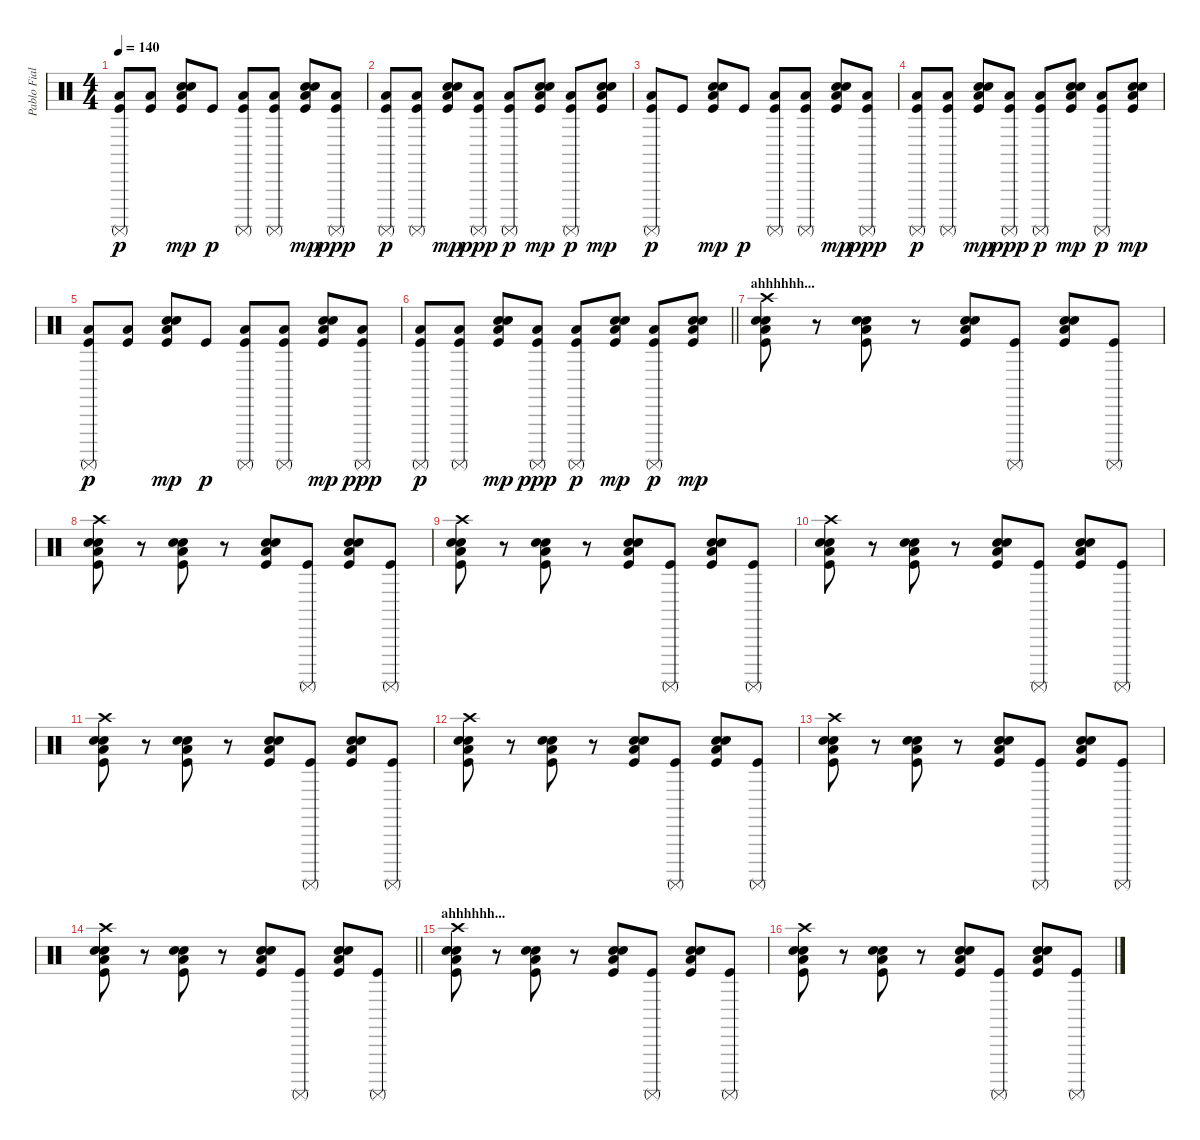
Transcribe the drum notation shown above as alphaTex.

\track ("Pablo Fiallo" "Pablo Fial") {instrument percussion}
\staff {score}
\articulation defaults
\ts (4 4)
\tempo 140
\clef neutral
\ks c
("Low Floor Tom (hit)" "Kick (hit)" "Surdo (mute)").8{dy p} ("Low Floor Tom (hit)" "Kick (hit)").8 ("Low Floor Tom (hit)" "Electric Snare (hit)" "Kick (hit)" "Snare (hit) 2").8{dy mp} "Kick (hit)".8{dy p} ("Low Floor Tom (hit)" "Kick (hit)" "Surdo (mute)").8 ("Low Floor Tom (hit)" "Kick (hit)" "Surdo (mute)").8 ("Low Floor Tom (hit)" "Electric Snare (hit)" "Kick (hit)" "Snare (hit) 2").8{dy mp} ("Low Floor Tom (hit)" "Kick (hit)" "Surdo (mute)").8{dy ppp} |
("Low Floor Tom (hit)" "Kick (hit)" "Surdo (mute)").8{dy p} ("Low Floor Tom (hit)" "Kick (hit)" "Surdo (mute)").8 ("Low Floor Tom (hit)" "Electric Snare (hit)" "Kick (hit)" "Snare (hit) 2").8{dy mp} ("Low Floor Tom (hit)" "Kick (hit)" "Surdo (mute)").8{dy ppp} ("Low Floor Tom (hit)" "Kick (hit)" "Surdo (mute)").8{dy p} ("Low Floor Tom (hit)" "Electric Snare (hit)" "Kick (hit)" "Snare (hit) 2").8{dy mp} ("Low Floor Tom (hit)" "Kick (hit)" "Surdo (mute)").8{dy p} ("Low Floor Tom (hit)" "Electric Snare (hit)" "Kick (hit)" "Snare (hit) 2").8{dy mp} |
("Low Floor Tom (hit)" "Kick (hit)" "Surdo (mute)").8{dy p} "Kick (hit)".8 ("Low Floor Tom (hit)" "Electric Snare (hit)" "Kick (hit)" "Snare (hit) 2").8{dy mp} "Kick (hit)".8{dy p} ("Low Floor Tom (hit)" "Kick (hit)" "Surdo (mute)").8 ("Low Floor Tom (hit)" "Kick (hit)" "Surdo (mute)").8 ("Low Floor Tom (hit)" "Electric Snare (hit)" "Kick (hit)" "Snare (hit) 2").8{dy mp} ("Low Floor Tom (hit)" "Kick (hit)" "Surdo (mute)").8{dy ppp} |
("Low Floor Tom (hit)" "Kick (hit)" "Surdo (mute)").8{dy p} ("Low Floor Tom (hit)" "Kick (hit)" "Surdo (mute)").8 ("Low Floor Tom (hit)" "Electric Snare (hit)" "Kick (hit)" "Snare (hit) 2").8{dy mp} ("Low Floor Tom (hit)" "Kick (hit)" "Surdo (mute)").8{dy ppp} ("Low Floor Tom (hit)" "Kick (hit)" "Surdo (mute)").8{dy p} ("Low Floor Tom (hit)" "Electric Snare (hit)" "Kick (hit)" "Snare (hit) 2").8{dy mp} ("Low Floor Tom (hit)" "Kick (hit)" "Surdo (mute)").8{dy p} ("Low Floor Tom (hit)" "Electric Snare (hit)" "Kick (hit)" "Snare (hit) 2").8{dy mp} |
("Low Floor Tom (hit)" "Kick (hit)" "Surdo (mute)").8{dy p} ("Low Floor Tom (hit)" "Kick (hit)").8 ("Low Floor Tom (hit)" "Electric Snare (hit)" "Kick (hit)" "Snare (hit) 2").8{dy mp} "Kick (hit)".8{dy p} ("Low Floor Tom (hit)" "Kick (hit)" "Surdo (mute)").8 ("Low Floor Tom (hit)" "Kick (hit)" "Surdo (mute)").8 ("Low Floor Tom (hit)" "Electric Snare (hit)" "Kick (hit)" "Snare (hit) 2").8{dy mp} ("Low Floor Tom (hit)" "Kick (hit)" "Surdo (mute)").8{dy ppp} |
\barLineRight lightlight
("Low Floor Tom (hit)" "Kick (hit)" "Surdo (mute)").8{dy p} ("Low Floor Tom (hit)" "Kick (hit)" "Surdo (mute)").8 ("Low Floor Tom (hit)" "Electric Snare (hit)" "Kick (hit)" "Snare (hit) 2").8{dy mp} ("Low Floor Tom (hit)" "Kick (hit)" "Surdo (mute)").8{dy ppp} ("Low Floor Tom (hit)" "Kick (hit)" "Surdo (mute)").8{dy p} ("Low Floor Tom (hit)" "Electric Snare (hit)" "Kick (hit)" "Snare (hit) 2").8{dy mp} ("Low Floor Tom (hit)" "Kick (hit)" "Surdo (mute)").8{dy p} ("Low Floor Tom (hit)" "Electric Snare (hit)" "Kick (hit)" "Snare (hit) 2").8{dy mp} |
\section ("" "ahhhhhh...")
("Low Floor Tom (hit)" "Electric Snare (hit)" "Crash high (hit)" "Kick (hit)" "Snare (hit) 2").8 r.8 ("Low Floor Tom (hit)" "Electric Snare (hit)" "Kick (hit)" "Snare (hit) 2").8 r.8 ("Low Floor Tom (hit)" "Electric Snare (hit)" "Kick (hit)" "Snare (hit) 2").8 ("Kick (hit)" "Surdo (mute)").8 ("Low Floor Tom (hit)" "Electric Snare (hit)" "Kick (hit)" "Snare (hit) 2").8 ("Kick (hit)" "Surdo (mute)").8 |
("Low Floor Tom (hit)" "Electric Snare (hit)" "Crash high (hit)" "Kick (hit)" "Snare (hit) 2").8 r.8 ("Low Floor Tom (hit)" "Electric Snare (hit)" "Kick (hit)" "Snare (hit) 2").8 r.8 ("Low Floor Tom (hit)" "Electric Snare (hit)" "Kick (hit)" "Snare (hit) 2").8 ("Kick (hit)" "Surdo (mute)").8 ("Low Floor Tom (hit)" "Electric Snare (hit)" "Kick (hit)" "Snare (hit) 2").8 ("Kick (hit)" "Surdo (mute)").8 |
("Low Floor Tom (hit)" "Electric Snare (hit)" "Crash high (hit)" "Kick (hit)" "Snare (hit) 2").8 r.8 ("Low Floor Tom (hit)" "Electric Snare (hit)" "Kick (hit)" "Snare (hit) 2").8 r.8 ("Low Floor Tom (hit)" "Electric Snare (hit)" "Kick (hit)" "Snare (hit) 2").8 ("Kick (hit)" "Surdo (mute)").8 ("Low Floor Tom (hit)" "Electric Snare (hit)" "Kick (hit)" "Snare (hit) 2").8 ("Kick (hit)" "Surdo (mute)").8 |
("Low Floor Tom (hit)" "Electric Snare (hit)" "Crash high (hit)" "Kick (hit)" "Snare (hit) 2").8 r.8 ("Low Floor Tom (hit)" "Electric Snare (hit)" "Kick (hit)" "Snare (hit) 2").8 r.8 ("Low Floor Tom (hit)" "Electric Snare (hit)" "Kick (hit)" "Snare (hit) 2").8 ("Kick (hit)" "Surdo (mute)").8 ("Low Floor Tom (hit)" "Electric Snare (hit)" "Kick (hit)" "Snare (hit) 2").8 ("Kick (hit)" "Surdo (mute)").8 |
("Low Floor Tom (hit)" "Electric Snare (hit)" "Crash high (hit)" "Kick (hit)" "Snare (hit) 2").8 r.8 ("Low Floor Tom (hit)" "Electric Snare (hit)" "Kick (hit)" "Snare (hit) 2").8 r.8 ("Low Floor Tom (hit)" "Electric Snare (hit)" "Kick (hit)" "Snare (hit) 2").8 ("Kick (hit)" "Surdo (mute)").8 ("Low Floor Tom (hit)" "Electric Snare (hit)" "Kick (hit)" "Snare (hit) 2").8 ("Kick (hit)" "Surdo (mute)").8 |
("Low Floor Tom (hit)" "Electric Snare (hit)" "Crash high (hit)" "Kick (hit)" "Snare (hit) 2").8 r.8 ("Low Floor Tom (hit)" "Electric Snare (hit)" "Kick (hit)" "Snare (hit) 2").8 r.8 ("Low Floor Tom (hit)" "Electric Snare (hit)" "Kick (hit)" "Snare (hit) 2").8 ("Kick (hit)" "Surdo (mute)").8 ("Low Floor Tom (hit)" "Electric Snare (hit)" "Kick (hit)" "Snare (hit) 2").8 ("Kick (hit)" "Surdo (mute)").8 |
("Low Floor Tom (hit)" "Electric Snare (hit)" "Crash high (hit)" "Kick (hit)" "Snare (hit) 2").8 r.8 ("Low Floor Tom (hit)" "Electric Snare (hit)" "Kick (hit)" "Snare (hit) 2").8 r.8 ("Low Floor Tom (hit)" "Electric Snare (hit)" "Kick (hit)" "Snare (hit) 2").8 ("Kick (hit)" "Surdo (mute)").8 ("Low Floor Tom (hit)" "Electric Snare (hit)" "Kick (hit)" "Snare (hit) 2").8 ("Kick (hit)" "Surdo (mute)").8 |
\barLineRight lightlight
("Low Floor Tom (hit)" "Electric Snare (hit)" "Crash high (hit)" "Kick (hit)" "Snare (hit) 2").8 r.8 ("Low Floor Tom (hit)" "Electric Snare (hit)" "Kick (hit)" "Snare (hit) 2").8 r.8 ("Low Floor Tom (hit)" "Electric Snare (hit)" "Kick (hit)" "Snare (hit) 2").8 ("Kick (hit)" "Surdo (mute)").8 ("Low Floor Tom (hit)" "Electric Snare (hit)" "Kick (hit)" "Snare (hit) 2").8 ("Kick (hit)" "Surdo (mute)").8 |
\section ("" "ahhhhhh...")
("Low Floor Tom (hit)" "Electric Snare (hit)" "Crash high (hit)" "Kick (hit)" "Snare (hit) 2").8 r.8 ("Low Floor Tom (hit)" "Electric Snare (hit)" "Kick (hit)" "Snare (hit) 2").8 r.8 ("Low Floor Tom (hit)" "Electric Snare (hit)" "Kick (hit)" "Snare (hit) 2").8 ("Kick (hit)" "Surdo (mute)").8 ("Low Floor Tom (hit)" "Electric Snare (hit)" "Kick (hit)" "Snare (hit) 2").8 ("Kick (hit)" "Surdo (mute)").8 |
("Low Floor Tom (hit)" "Electric Snare (hit)" "Crash high (hit)" "Kick (hit)" "Snare (hit) 2").8 r.8 ("Low Floor Tom (hit)" "Electric Snare (hit)" "Kick (hit)" "Snare (hit) 2").8 r.8 ("Low Floor Tom (hit)" "Electric Snare (hit)" "Kick (hit)" "Snare (hit) 2").8 ("Kick (hit)" "Surdo (mute)").8 ("Low Floor Tom (hit)" "Electric Snare (hit)" "Kick (hit)" "Snare (hit) 2").8 ("Kick (hit)" "Surdo (mute)").8
